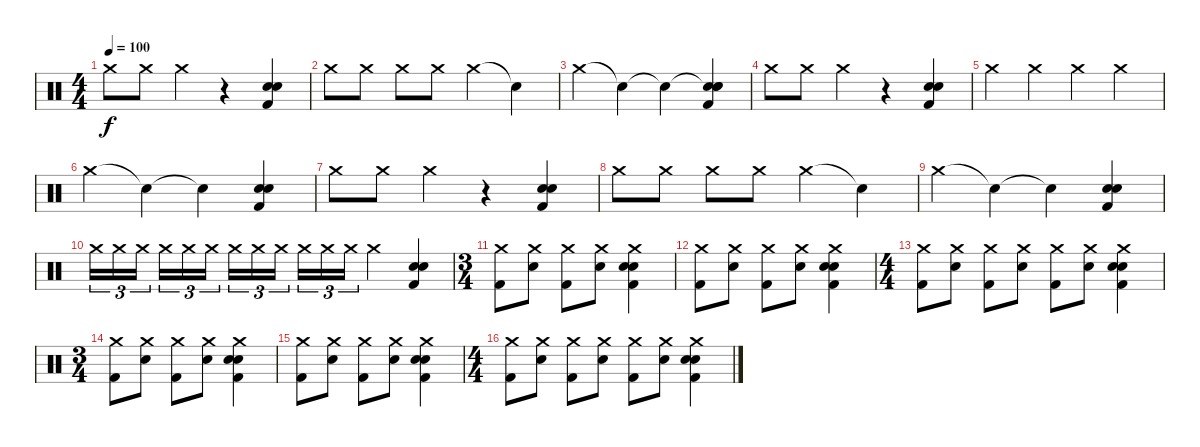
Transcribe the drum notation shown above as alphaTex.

\track "" {instrument percussion}
\staff {score}
\articulation defaults
\ts (4 4)
\tempo 100
\clef neutral
\ks c "Crash medium (hit)".8{dy f} "Crash medium (hit)".8 "Crash medium (hit)".4
r.4 ("Snare (hit) 2" "Electric Snare (hit)" "Kick (hit) 2").4 |
"Crash medium (hit)".8 "Crash medium (hit)".8 "Crash medium (hit)".8 "Crash medium (hit)".8 "Crash medium (hit)".4 "Snare (hit)"{t}.4 |
"Crash medium (hit)".4 "Snare (hit)"{t}.4 "Snare (hit)"{t}.4 ("Snare (hit)"{t} "Snare (hit) 2" "Electric Snare (hit)" "Kick (hit) 2").4 |
"Crash medium (hit)".8 "Crash medium (hit)".8 "Crash medium (hit)".4 r.4 ("Snare (hit) 2" "Electric Snare (hit)" "Kick (hit) 2").4 |
"Crash medium (hit)".4 "Crash medium (hit)".4 "Crash medium (hit)".4 "Crash medium (hit)".4 |
"Crash medium (hit)".4 "Snare (hit)"{t}.4 "Snare (hit)"{t}.4 ("Snare (hit) 2" "Electric Snare (hit)" "Kick (hit) 2").4 |
"Crash medium (hit)".8 "Crash medium (hit)".8 "Crash medium (hit)".4 r.4 ("Snare (hit) 2" "Electric Snare (hit)" "Kick (hit) 2").4 |
"Crash medium (hit)".8 "Crash medium (hit)".8 "Crash medium (hit)".8 "Crash medium (hit)".8 "Crash medium (hit)".4 "Snare (hit)"{t}.4 |
"Crash medium (hit)".4 "Snare (hit)"{t}.4 "Snare (hit)"{t}.4 ("Snare (hit) 2" "Electric Snare (hit)" "Kick (hit) 2").4 |
"Crash medium (hit)".16{tu (3 2)} "Crash medium (hit)".16{tu (3 2)} "Crash medium (hit)".16{tu (3 2)} "Crash medium (hit)".16{tu (3 2)} "Crash medium (hit)".16{tu (3 2)} "Crash medium (hit)".16{tu (3 2)} "Crash medium (hit)".16{tu (3 2)} "Crash medium (hit)".16{tu (3 2)} "Crash medium (hit)".16{tu (3 2)} "Crash medium (hit)".16{tu (3 2)} "Crash medium (hit)".16{tu (3 2)} "Crash medium (hit)".16{tu (3 2)} "Crash medium (hit)".4 ("Snare (hit) 2" "Electric Snare (hit)" "Kick (hit) 2").4 |
\ts (3 4)
("Crash medium (hit)" "Kick (hit) 2").8 ("Crash medium (hit)" "Electric Snare (hit)").8 ("Crash medium (hit)" "Kick (hit) 2").8 ("Crash medium (hit)" "Electric Snare (hit)").8 ("Crash medium (hit)" "Snare (hit) 2" "Electric Snare (hit)" "Kick (hit) 2").4 |
("Crash medium (hit)" "Kick (hit) 2").8 ("Crash medium (hit)" "Electric Snare (hit)").8 ("Crash medium (hit)" "Kick (hit) 2").8 ("Crash medium (hit)" "Electric Snare (hit)").8 ("Crash medium (hit)" "Snare (hit) 2" "Electric Snare (hit)" "Kick (hit) 2").4 |
\ts (4 4)
("Crash medium (hit)" "Kick (hit) 2").8 ("Crash medium (hit)" "Electric Snare (hit)").8 ("Crash medium (hit)" "Kick (hit) 2").8 ("Crash medium (hit)" "Electric Snare (hit)").8 ("Crash medium (hit)" "Kick (hit) 2").8 ("Crash medium (hit)" "Electric Snare (hit)").8 ("Crash medium (hit)" "Snare (hit) 2" "Electric Snare (hit)" "Kick (hit) 2").4 |
\ts (3 4)
("Crash medium (hit)" "Kick (hit) 2").8 ("Crash medium (hit)" "Electric Snare (hit)").8 ("Crash medium (hit)" "Kick (hit) 2").8 ("Crash medium (hit)" "Electric Snare (hit)").8 ("Crash medium (hit)" "Snare (hit) 2" "Electric Snare (hit)" "Kick (hit) 2").4 |
("Crash medium (hit)" "Kick (hit) 2").8 ("Crash medium (hit)" "Electric Snare (hit)").8 ("Crash medium (hit)" "Kick (hit) 2").8 ("Crash medium (hit)" "Electric Snare (hit)").8 ("Crash medium (hit)" "Snare (hit) 2" "Electric Snare (hit)" "Kick (hit) 2").4 |
\ts (4 4)
("Crash medium (hit)" "Kick (hit) 2").8 ("Crash medium (hit)" "Electric Snare (hit)").8 ("Crash medium (hit)" "Kick (hit) 2").8 ("Crash medium (hit)" "Electric Snare (hit)").8 ("Crash medium (hit)" "Kick (hit) 2").8 ("Crash medium (hit)" "Electric Snare (hit)").8 ("Crash medium (hit)" "Snare (hit) 2" "Electric Snare (hit)" "Kick (hit) 2").4
